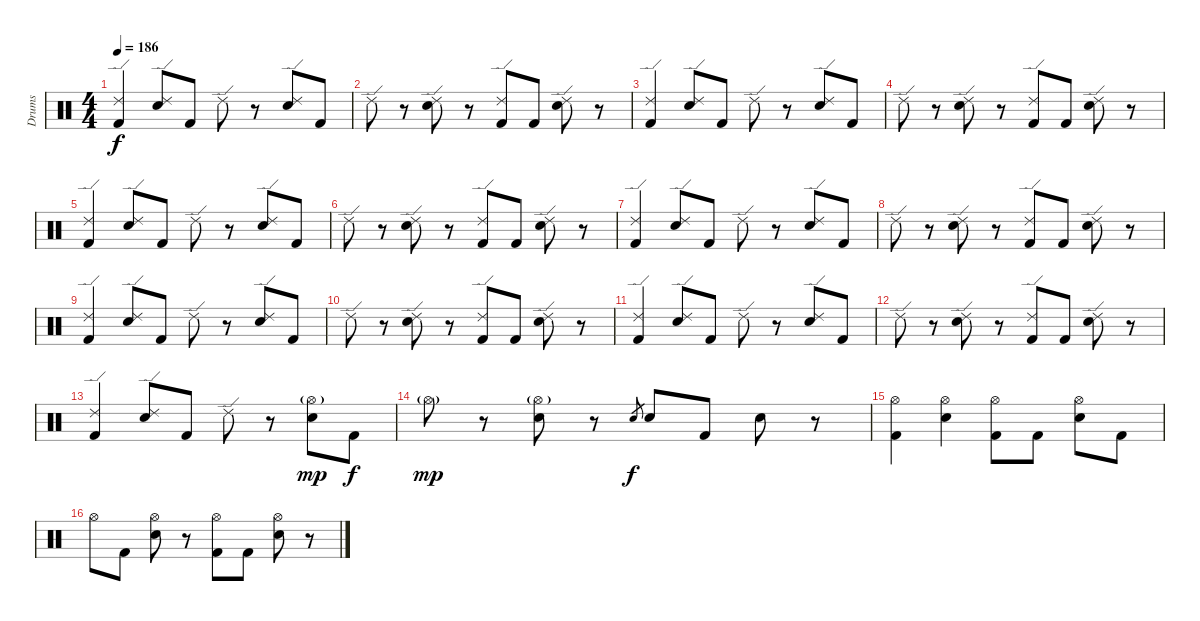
\track ("Drums" "Drums") {instrument percussion}
\staff {score}
\articulation defaults
\ts (4 4)
\tempo 186
\clef neutral
\ks c
("Ride (edge) 2" "Kick (hit) 2").4{dy f} ("Ride (edge) 2" "Snare (hit) 2").8 "Kick (hit) 2".8 "Ride (edge) 2".8 r.8 ("Ride (edge) 2" "Snare (hit) 2").8 "Kick (hit) 2".8 |
"Ride (edge) 2".8 r.8 ("Ride (edge) 2" "Snare (hit) 2").8 r.8 ("Ride (edge) 2" "Kick (hit) 2").8 "Kick (hit) 2".8 ("Ride (edge) 2" "Snare (hit) 2").8 r.8 |
("Ride (edge) 2" "Kick (hit) 2").4 ("Ride (edge) 2" "Snare (hit) 2").8 "Kick (hit) 2".8 "Ride (edge) 2".8 r.8 ("Ride (edge) 2" "Snare (hit) 2").8 "Kick (hit) 2".8 |
"Ride (edge) 2".8 r.8 ("Ride (edge) 2" "Snare (hit) 2").8 r.8 ("Ride (edge) 2" "Kick (hit) 2").8 "Kick (hit) 2".8 ("Ride (edge) 2" "Snare (hit) 2").8 r.8 |
("Ride (edge) 2" "Kick (hit) 2").4 ("Ride (edge) 2" "Snare (hit) 2").8 "Kick (hit) 2".8 "Ride (edge) 2".8 r.8 ("Ride (edge) 2" "Snare (hit) 2").8 "Kick (hit) 2".8 |
"Ride (edge) 2".8 r.8 ("Ride (edge) 2" "Snare (hit) 2").8 r.8 ("Ride (edge) 2" "Kick (hit) 2").8 "Kick (hit) 2".8 ("Ride (edge) 2" "Snare (hit) 2").8 r.8 |
("Ride (edge) 2" "Kick (hit) 2").4 ("Ride (edge) 2" "Snare (hit) 2").8 "Kick (hit) 2".8 "Ride (edge) 2".8 r.8 ("Ride (edge) 2" "Snare (hit) 2").8 "Kick (hit) 2".8 |
"Ride (edge) 2".8 r.8 ("Ride (edge) 2" "Snare (hit) 2").8 r.8 ("Ride (edge) 2" "Kick (hit) 2").8 "Kick (hit) 2".8 ("Ride (edge) 2" "Snare (hit) 2").8 r.8 |
("Ride (edge) 2" "Kick (hit) 2").4 ("Ride (edge) 2" "Snare (hit) 2").8 "Kick (hit) 2".8 "Ride (edge) 2".8 r.8 ("Ride (edge) 2" "Snare (hit) 2").8 "Kick (hit) 2".8 |
"Ride (edge) 2".8 r.8 ("Ride (edge) 2" "Snare (hit) 2").8 r.8 ("Ride (edge) 2" "Kick (hit) 2").8 "Kick (hit) 2".8 ("Ride (edge) 2" "Snare (hit) 2").8 r.8 |
("Ride (edge) 2" "Kick (hit) 2").4 ("Ride (edge) 2" "Snare (hit) 2").8 "Kick (hit) 2".8 "Ride (edge) 2".8 r.8 ("Ride (edge) 2" "Snare (hit) 2").8 "Kick (hit) 2".8 |
"Ride (edge) 2".8 r.8 ("Ride (edge) 2" "Snare (hit) 2").8 r.8 ("Ride (edge) 2" "Kick (hit) 2").8 "Kick (hit) 2".8 ("Ride (edge) 2" "Snare (hit) 2").8 r.8 |
("Ride (edge) 2" "Kick (hit) 2").4 ("Ride (edge) 2" "Snare (hit) 2").8 "Kick (hit) 2".8 "Ride (edge) 2".8 r.8 ("Hi-Hat (open)"{g} "Snare (hit) 2").8{dy mp} "Kick (hit) 2".8{dy f} |
"Hi-Hat (open)"{g}.8{dy mp} r.8 ("Hi-Hat (open)"{g} "Snare (hit) 2").8 r.8 "Snare (hit) 2".8{gr dy f} "Snare (hit) 2".8 "Kick (hit) 2".8 "Snare (hit) 2".8 r.8 |
("Hi-Hat (open)" "Kick (hit) 2").4 ("Hi-Hat (open)" "Snare (hit) 2").4 ("Hi-Hat (open)" "Kick (hit) 2").8 "Kick (hit) 2".8 ("Hi-Hat (open)" "Snare (hit) 2").8 "Kick (hit) 2".8 |
"Hi-Hat (open)".8 "Kick (hit) 2".8 ("Hi-Hat (open)" "Snare (hit) 2").8 r.8 ("Hi-Hat (open)" "Kick (hit) 2").8 "Kick (hit) 2".8 ("Hi-Hat (open)" "Snare (hit) 2").8 r.8
